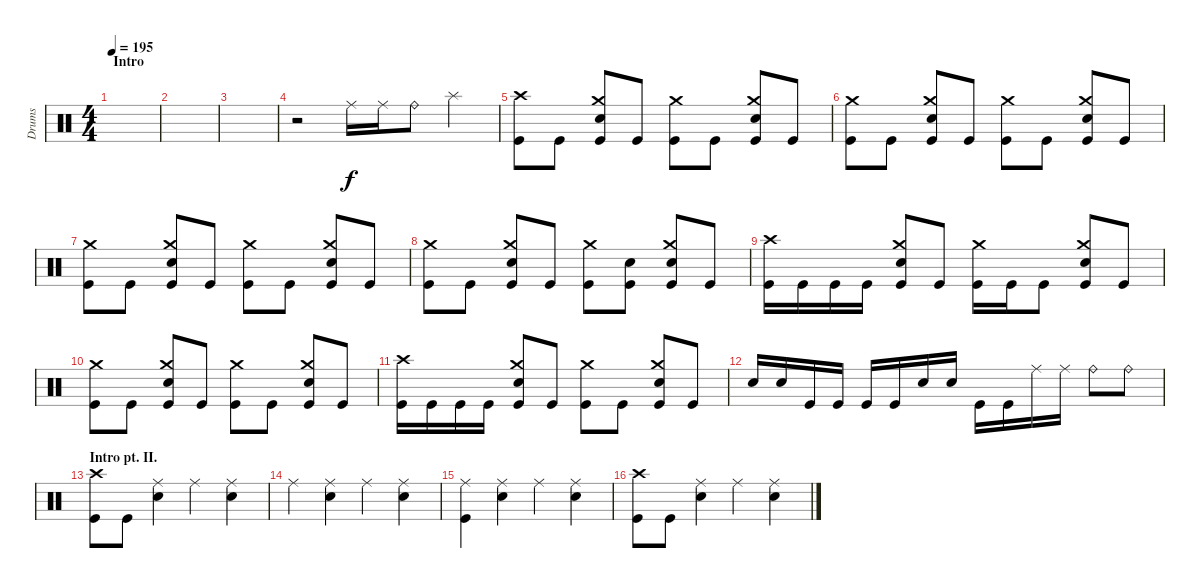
\track ("Drums" "Drums") {instrument percussion}
\staff {score}
\articulation defaults
\ts (4 4)
\section ("" "Intro")
\tempo 195
\clef neutral
\ks c
|
|
|
r.2 "Ride (middle)".16 "Ride (middle)".16 "Ride (bell)".8 "Splash (hit)".4 |
("Crash high (hit)" "Kick (hit)").8 "Kick (hit)".8 ("Crash medium (hit)" "Electric Snare (hit)" "Kick (hit)").8 "Kick (hit)".8 ("Crash medium (hit)" "Kick (hit)").8 "Kick (hit)".8 ("Crash medium (hit)" "Electric Snare (hit)" "Kick (hit)").8 "Kick (hit)".8 |
("Crash medium (hit)" "Kick (hit)").8 "Kick (hit)".8 ("Crash medium (hit)" "Electric Snare (hit)" "Kick (hit)").8 "Kick (hit)".8 ("Crash medium (hit)" "Kick (hit)").8 "Kick (hit)".8 ("Crash medium (hit)" "Electric Snare (hit)" "Kick (hit)").8 "Kick (hit)".8 |
("Crash medium (hit)" "Kick (hit)").8 "Kick (hit)".8 ("Crash medium (hit)" "Electric Snare (hit)" "Kick (hit)").8 "Kick (hit)".8 ("Crash medium (hit)" "Kick (hit)").8 "Kick (hit)".8 ("Crash medium (hit)" "Electric Snare (hit)" "Kick (hit)").8 "Kick (hit)".8 |
("Crash medium (hit)" "Kick (hit)").8 "Kick (hit)".8 ("Crash medium (hit)" "Electric Snare (hit)" "Kick (hit)").8 "Kick (hit)".8 ("Crash medium (hit)" "Kick (hit)").8 ("Electric Snare (hit)" "Kick (hit)").8 ("Crash medium (hit)" "Electric Snare (hit)" "Kick (hit)").8 "Kick (hit)".8 |
("Crash high (hit)" "Kick (hit)").16 "Kick (hit)".16 "Kick (hit)".16 "Kick (hit)".16 ("Crash medium (hit)" "Electric Snare (hit)" "Kick (hit)").8 "Kick (hit)".8 ("Crash medium (hit)" "Kick (hit)").16 "Kick (hit)".16 "Kick (hit)".8 ("Crash medium (hit)" "Electric Snare (hit)" "Kick (hit)").8 "Kick (hit)".8 |
("Crash medium (hit)" "Kick (hit)").8 "Kick (hit)".8 ("Crash medium (hit)" "Electric Snare (hit)" "Kick (hit)").8 "Kick (hit)".8 ("Crash medium (hit)" "Kick (hit)").8 "Kick (hit)".8 ("Crash medium (hit)" "Electric Snare (hit)" "Kick (hit)").8 "Kick (hit)".8 |
("Crash high (hit)" "Kick (hit)").16 "Kick (hit)".16 "Kick (hit)".16 "Kick (hit)".16 ("Crash medium (hit)" "Electric Snare (hit)" "Kick (hit)").8 "Kick (hit)".8 ("Crash medium (hit)" "Kick (hit)").8 "Kick (hit)".8 ("Crash medium (hit)" "Electric Snare (hit)" "Kick (hit)").8 "Kick (hit)".8 |
"Electric Snare (hit)".16 "Electric Snare (hit)".16 "Kick (hit)".16 "Kick (hit)".16 "Kick (hit)".16 "Kick (hit)".16 "Electric Snare (hit)".16 "Electric Snare (hit)".16 "Kick (hit)".16 "Kick (hit)".16 "Ride (middle)".16 "Ride (middle)".16 "Ride (bell)".8 "Ride (bell)".8 |
\section ("" "Intro pt. II.")
("Crash high (hit)" "Kick (hit)").8 "Kick (hit)".8 ("Ride (middle)" "Electric Snare (hit)").4 "Ride (middle)".4 ("Ride (middle)" "Electric Snare (hit)").4 |
"Ride (middle)".4 ("Ride (middle)" "Electric Snare (hit)").4 "Ride (middle)".4 ("Ride (middle)" "Electric Snare (hit)").4 |
("Ride (middle)" "Kick (hit)").4 ("Ride (middle)" "Electric Snare (hit)").4 "Ride (middle)".4 ("Ride (middle)" "Electric Snare (hit)").4 |
("Crash high (hit)" "Kick (hit)").8 "Kick (hit)".8 ("Ride (middle)" "Electric Snare (hit)").4 "Ride (middle)".4 ("Ride (middle)" "Electric Snare (hit)").4
